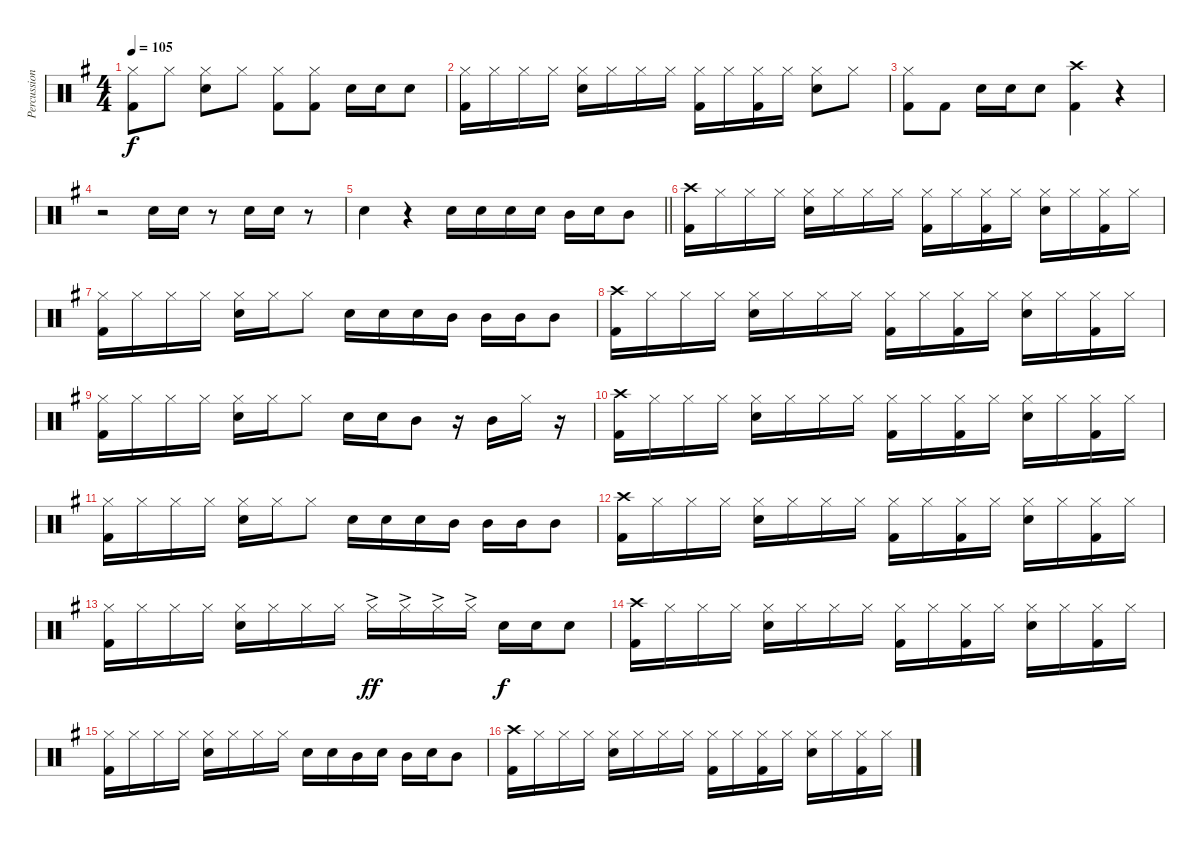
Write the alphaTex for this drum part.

\track ("Percussion" "Percussion") {instrument percussion}
\staff {score}
\articulation defaults
\ts (4 4)
\tempo 105
\clef neutral
\ks g
("Hi-Hat (closed)" "Kick (hit) 2").8{dy f} "Hi-Hat (closed)".8 ("Hi-Hat (closed)" "Snare (hit) 2").8 "Hi-Hat (closed)".8 ("Hi-Hat (closed)" "Kick (hit) 2").8 ("Hi-Hat (closed)" "Kick (hit) 2").8 "Snare (hit) 2".16 "Snare (hit) 2".16 "Snare (hit) 2".8 |
("Hi-Hat (closed)" "Kick (hit) 2").16 "Hi-Hat (closed)".16 "Hi-Hat (closed)".16 "Hi-Hat (closed)".16 ("Hi-Hat (closed)" "Snare (hit) 2").16 "Hi-Hat (closed)".16 "Hi-Hat (closed)".16 "Hi-Hat (closed)".16 ("Hi-Hat (closed)" "Kick (hit) 2").16 "Hi-Hat (closed)".16 ("Hi-Hat (closed)" "Kick (hit) 2").16 "Hi-Hat (closed)".16 ("Hi-Hat (closed)" "Snare (hit) 2").8 "Hi-Hat (closed)".8 |
("Hi-Hat (closed)" "Kick (hit) 2").8 "Kick (hit) 2".8 "Snare (hit) 2".16 "Snare (hit) 2".16 "Snare (hit) 2".8 ("Crash high (hit)" "Kick (hit) 2").4 r.4 |
r.2 "Snare (hit) 2".16 "Snare (hit) 2".16 r.8 "Snare (hit) 2".16 "Snare (hit) 2".16 r.8 |
\barLineRight lightlight "Snare (hit) 2".4
r.4 "Snare (hit) 2".16 "Snare (hit) 2".16 "Snare (hit) 2".16 "Snare (hit) 2".16 "Mid Tom (hit)".16 "Snare (hit) 2".16 "Mid Tom (hit)".8 |
("Crash high (hit)" "Kick (hit) 2").16 "Hi-Hat (closed)".16 "Hi-Hat (closed)".16 "Hi-Hat (closed)".16 ("Hi-Hat (closed)" "Snare (hit) 2").16 "Hi-Hat (closed)".16 "Hi-Hat (closed)".16 "Hi-Hat (closed)".16 ("Hi-Hat (closed)" "Kick (hit) 2").16 "Hi-Hat (closed)".16 ("Hi-Hat (closed)" "Kick (hit) 2").16 "Hi-Hat (closed)".16 ("Hi-Hat (closed)" "Snare (hit) 2").16 "Hi-Hat (closed)".16 ("Hi-Hat (closed)" "Kick (hit) 2").16 "Hi-Hat (closed)".16 |
("Hi-Hat (closed)" "Kick (hit) 2").16 "Hi-Hat (closed)".16 "Hi-Hat (closed)".16 "Hi-Hat (closed)".16 ("Hi-Hat (closed)" "Snare (hit) 2").16 "Hi-Hat (closed)".16 "Hi-Hat (closed)".8 "Snare (hit) 2".16 "Snare (hit) 2".16 "Snare (hit) 2".16 "Mid Tom (hit)".16 "Mid Tom (hit)".16 "Mid Tom (hit)".16 "Mid Tom (hit)".8 |
("Crash high (hit)" "Kick (hit) 2").16 "Hi-Hat (closed)".16 "Hi-Hat (closed)".16 "Hi-Hat (closed)".16 ("Hi-Hat (closed)" "Snare (hit) 2").16 "Hi-Hat (closed)".16 "Hi-Hat (closed)".16 "Hi-Hat (closed)".16 ("Hi-Hat (closed)" "Kick (hit) 2").16 "Hi-Hat (closed)".16 ("Hi-Hat (closed)" "Kick (hit) 2").16 "Hi-Hat (closed)".16 ("Hi-Hat (closed)" "Snare (hit) 2").16 "Hi-Hat (closed)".16 ("Hi-Hat (closed)" "Kick (hit) 2").16 "Hi-Hat (closed)".16 |
("Hi-Hat (closed)" "Kick (hit) 2").16 "Hi-Hat (closed)".16 "Hi-Hat (closed)".16 "Hi-Hat (closed)".16 ("Hi-Hat (closed)" "Snare (hit) 2").16 "Hi-Hat (closed)".16 "Hi-Hat (closed)".8 "Snare (hit) 2".16 "Snare (hit) 2".16 "Mid Tom (hit)".8 r.16 "Mid Tom (hit)".16 "Hi-Hat (closed)".16 r.16 |
("Crash high (hit)" "Kick (hit) 2").16 "Hi-Hat (closed)".16 "Hi-Hat (closed)".16 "Hi-Hat (closed)".16 ("Hi-Hat (closed)" "Snare (hit) 2").16 "Hi-Hat (closed)".16 "Hi-Hat (closed)".16 "Hi-Hat (closed)".16 ("Hi-Hat (closed)" "Kick (hit) 2").16 "Hi-Hat (closed)".16 ("Hi-Hat (closed)" "Kick (hit) 2").16 "Hi-Hat (closed)".16 ("Hi-Hat (closed)" "Snare (hit) 2").16 "Hi-Hat (closed)".16 ("Hi-Hat (closed)" "Kick (hit) 2").16 "Hi-Hat (closed)".16 |
("Hi-Hat (closed)" "Kick (hit) 2").16 "Hi-Hat (closed)".16 "Hi-Hat (closed)".16 "Hi-Hat (closed)".16 ("Hi-Hat (closed)" "Snare (hit) 2").16 "Hi-Hat (closed)".16 "Hi-Hat (closed)".8 "Snare (hit) 2".16 "Snare (hit) 2".16 "Snare (hit) 2".16 "Mid Tom (hit)".16 "Mid Tom (hit)".16 "Mid Tom (hit)".16 "Mid Tom (hit)".8 |
("Crash high (hit)" "Kick (hit) 2").16 "Hi-Hat (closed)".16 "Hi-Hat (closed)".16 "Hi-Hat (closed)".16 ("Hi-Hat (closed)" "Snare (hit) 2").16 "Hi-Hat (closed)".16 "Hi-Hat (closed)".16 "Hi-Hat (closed)".16 ("Hi-Hat (closed)" "Kick (hit) 2").16 "Hi-Hat (closed)".16 ("Hi-Hat (closed)" "Kick (hit) 2").16 "Hi-Hat (closed)".16 ("Hi-Hat (closed)" "Snare (hit) 2").16 "Hi-Hat (closed)".16 ("Hi-Hat (closed)" "Kick (hit) 2").16 "Hi-Hat (closed)".16 |
("Hi-Hat (closed)" "Kick (hit) 2").16 "Hi-Hat (closed)".16 "Hi-Hat (closed)".16 "Hi-Hat (closed)".16 ("Hi-Hat (closed)" "Snare (hit) 2").16 "Hi-Hat (closed)".16 "Hi-Hat (closed)".16 "Hi-Hat (closed)".16 "Hi-Hat (closed)"{ac}.16{dy ff} "Hi-Hat (closed)"{ac}.16 "Hi-Hat (closed)"{ac}.16 "Hi-Hat (closed)"{ac}.16 "Snare (hit) 2".16{dy f} "Snare (hit) 2".16 "Snare (hit) 2".8 |
("Crash high (hit)" "Kick (hit) 2").16 "Hi-Hat (closed)".16 "Hi-Hat (closed)".16 "Hi-Hat (closed)".16 ("Hi-Hat (closed)" "Snare (hit) 2").16 "Hi-Hat (closed)".16 "Hi-Hat (closed)".16 "Hi-Hat (closed)".16 ("Hi-Hat (closed)" "Kick (hit) 2").16 "Hi-Hat (closed)".16 ("Hi-Hat (closed)" "Kick (hit) 2").16 "Hi-Hat (closed)".16 ("Hi-Hat (closed)" "Snare (hit) 2").16 "Hi-Hat (closed)".16 ("Hi-Hat (closed)" "Kick (hit) 2").16 "Hi-Hat (closed)".16 |
("Hi-Hat (closed)" "Kick (hit) 2").16 "Hi-Hat (closed)".16 "Hi-Hat (closed)".16 "Hi-Hat (closed)".16 ("Hi-Hat (closed)" "Snare (hit) 2").16 "Hi-Hat (closed)".16 "Hi-Hat (closed)".16 "Hi-Hat (closed)".16 "Snare (hit) 2".16 "Snare (hit) 2".16 "Mid Tom (hit)".16 "Snare (hit) 2".16 "Mid Tom (hit)".16 "Snare (hit) 2".16 "Mid Tom (hit)".8 |
("Crash high (hit)" "Kick (hit) 2").16 "Hi-Hat (closed)".16 "Hi-Hat (closed)".16 "Hi-Hat (closed)".16 ("Hi-Hat (closed)" "Snare (hit) 2").16 "Hi-Hat (closed)".16 "Hi-Hat (closed)".16 "Hi-Hat (closed)".16 ("Hi-Hat (closed)" "Kick (hit) 2").16 "Hi-Hat (closed)".16 ("Hi-Hat (closed)" "Kick (hit) 2").16 "Hi-Hat (closed)".16 ("Hi-Hat (closed)" "Snare (hit) 2").16 "Hi-Hat (closed)".16 ("Hi-Hat (closed)" "Kick (hit) 2").16 "Hi-Hat (closed)".16
